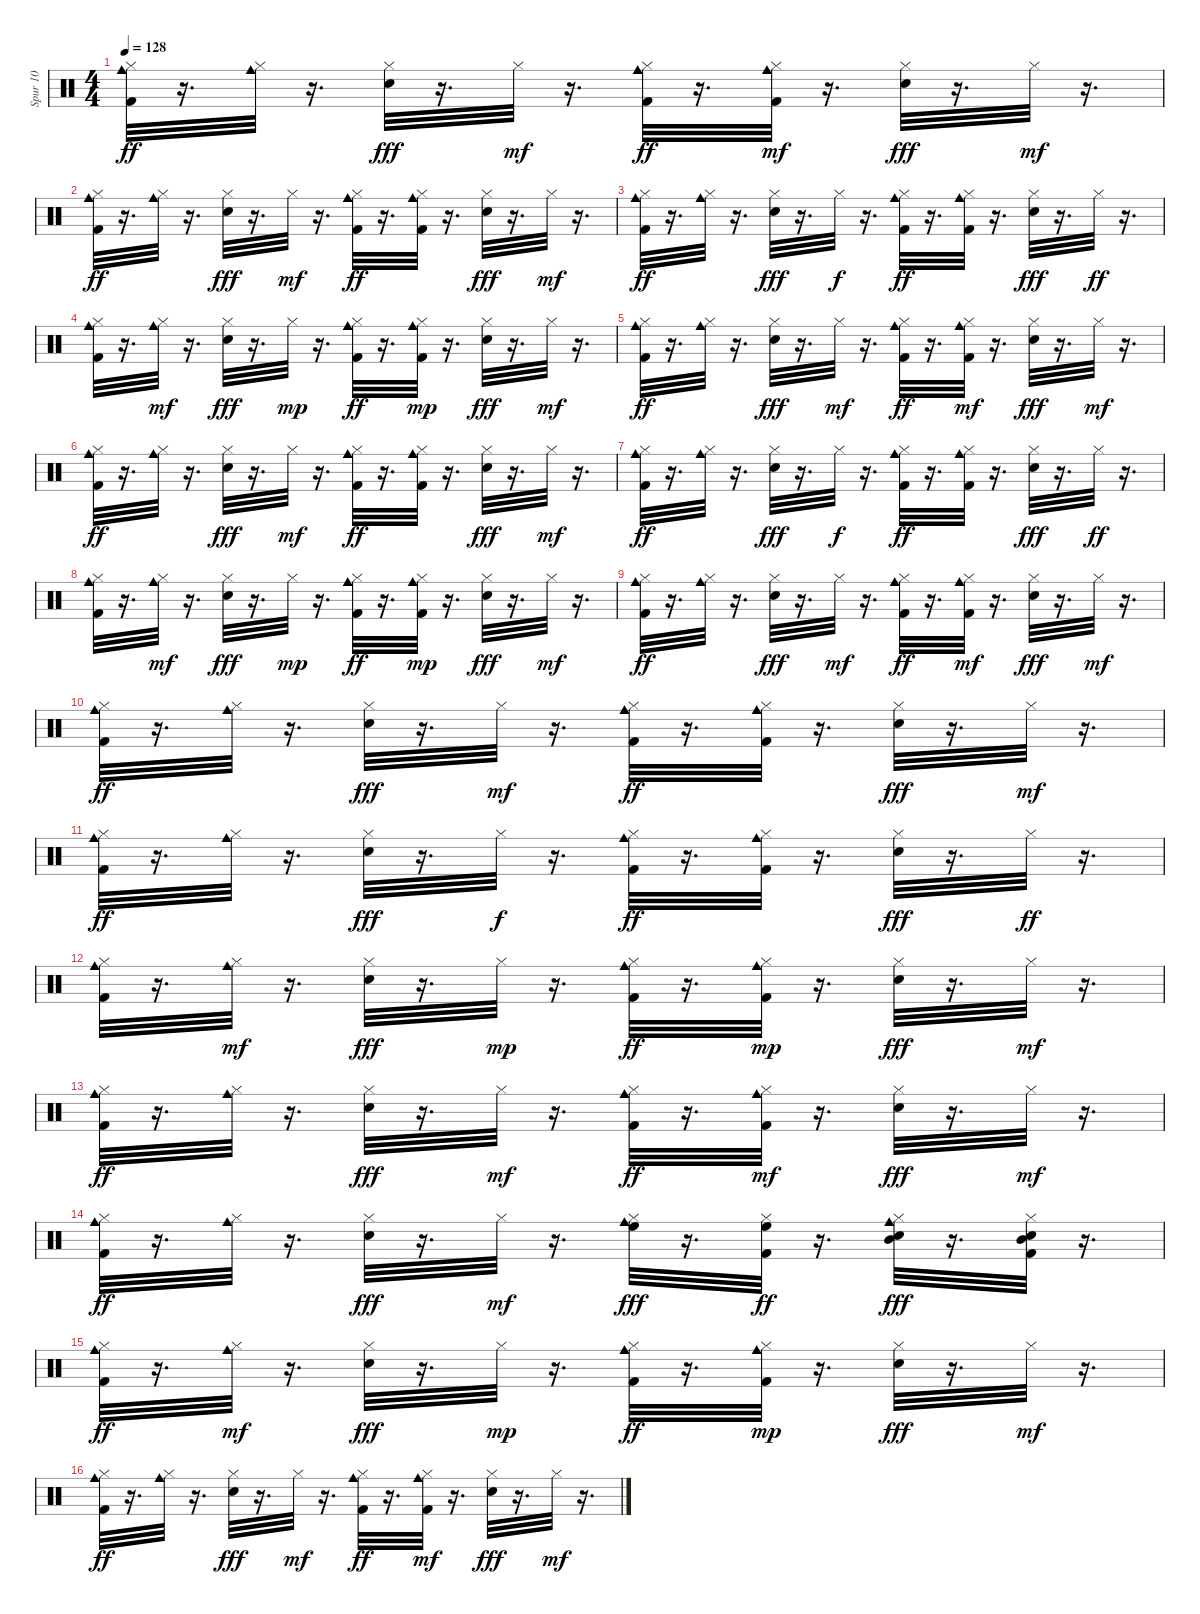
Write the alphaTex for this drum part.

\track ("Spur 10" "Spur 10") {instrument percussion}
\staff {score}
\articulation defaults
\ts (4 4)
\tempo 128
\clef neutral
\ks c
("Kick (hit) 2" "Hi-Hat (closed)" "Cowbell medium (hit)").32{dy ff} r.16{d} ("Hi-Hat (closed)" "Cowbell medium (hit)").32 r.16{d} ("Electric Snare (hit)" "Hi-Hat (closed)").32{dy fff} r.16{d} "Hi-Hat (closed)".32{dy mf} r.16{d} ("Kick (hit) 2" "Hi-Hat (closed)" "Cowbell medium (hit)").32{dy ff} r.16{d} ("Kick (hit) 2" "Hi-Hat (closed)" "Cowbell medium (hit)").32{dy mf} r.16{d} ("Electric Snare (hit)" "Hi-Hat (closed)").32{dy fff} r.16{d} "Hi-Hat (closed)".32{dy mf} r.16{d} |
("Kick (hit) 2" "Hi-Hat (closed)" "Cowbell medium (hit)").32{dy ff} r.16{d} ("Hi-Hat (closed)" "Cowbell medium (hit)").32 r.16{d} ("Electric Snare (hit)" "Hi-Hat (closed)").32{dy fff} r.16{d} "Hi-Hat (closed)".32{dy mf} r.16{d} ("Kick (hit) 2" "Hi-Hat (closed)" "Cowbell medium (hit)").32{dy ff} r.16{d} ("Kick (hit) 2" "Hi-Hat (closed)" "Cowbell medium (hit)").32 r.16{d} ("Electric Snare (hit)" "Hi-Hat (closed)").32{dy fff} r.16{d} "Hi-Hat (closed)".32{dy mf} r.16{d} |
("Kick (hit) 2" "Hi-Hat (closed)" "Cowbell medium (hit)").32{dy ff} r.16{d} ("Hi-Hat (closed)" "Cowbell medium (hit)").32 r.16{d} ("Electric Snare (hit)" "Hi-Hat (closed)").32{dy fff} r.16{d} "Hi-Hat (closed)".32{dy f} r.16{d} ("Kick (hit) 2" "Hi-Hat (closed)" "Cowbell medium (hit)").32{dy ff} r.16{d} ("Kick (hit) 2" "Hi-Hat (closed)" "Cowbell medium (hit)").32 r.16{d} ("Electric Snare (hit)" "Hi-Hat (closed)").32{dy fff} r.16{d} "Hi-Hat (closed)".32{dy ff} r.16{d} |
("Kick (hit) 2" "Hi-Hat (closed)" "Cowbell medium (hit)").32 r.16{d} ("Hi-Hat (closed)" "Cowbell medium (hit)").32{dy mf} r.16{d} ("Electric Snare (hit)" "Hi-Hat (closed)").32{dy fff} r.16{d} "Hi-Hat (closed)".32{dy mp} r.16{d} ("Kick (hit) 2" "Hi-Hat (closed)" "Cowbell medium (hit)").32{dy ff} r.16{d} ("Kick (hit) 2" "Hi-Hat (closed)" "Cowbell medium (hit)").32{dy mp} r.16{d} ("Electric Snare (hit)" "Hi-Hat (closed)").32{dy fff} r.16{d} "Hi-Hat (closed)".32{dy mf} r.16{d} |
("Kick (hit) 2" "Hi-Hat (closed)" "Cowbell medium (hit)").32{dy ff} r.16{d} ("Hi-Hat (closed)" "Cowbell medium (hit)").32 r.16{d} ("Electric Snare (hit)" "Hi-Hat (closed)").32{dy fff} r.16{d} "Hi-Hat (closed)".32{dy mf} r.16{d} ("Kick (hit) 2" "Hi-Hat (closed)" "Cowbell medium (hit)").32{dy ff} r.16{d} ("Kick (hit) 2" "Hi-Hat (closed)" "Cowbell medium (hit)").32{dy mf} r.16{d} ("Electric Snare (hit)" "Hi-Hat (closed)").32{dy fff} r.16{d} "Hi-Hat (closed)".32{dy mf} r.16{d} |
("Kick (hit) 2" "Hi-Hat (closed)" "Cowbell medium (hit)").32{dy ff} r.16{d} ("Hi-Hat (closed)" "Cowbell medium (hit)").32 r.16{d} ("Electric Snare (hit)" "Hi-Hat (closed)").32{dy fff} r.16{d} "Hi-Hat (closed)".32{dy mf} r.16{d} ("Kick (hit) 2" "Hi-Hat (closed)" "Cowbell medium (hit)").32{dy ff} r.16{d} ("Kick (hit) 2" "Hi-Hat (closed)" "Cowbell medium (hit)").32 r.16{d} ("Electric Snare (hit)" "Hi-Hat (closed)").32{dy fff} r.16{d} "Hi-Hat (closed)".32{dy mf} r.16{d} |
("Kick (hit) 2" "Hi-Hat (closed)" "Cowbell medium (hit)").32{dy ff} r.16{d} ("Hi-Hat (closed)" "Cowbell medium (hit)").32 r.16{d} ("Electric Snare (hit)" "Hi-Hat (closed)").32{dy fff} r.16{d} "Hi-Hat (closed)".32{dy f} r.16{d} ("Kick (hit) 2" "Hi-Hat (closed)" "Cowbell medium (hit)").32{dy ff} r.16{d} ("Kick (hit) 2" "Hi-Hat (closed)" "Cowbell medium (hit)").32 r.16{d} ("Electric Snare (hit)" "Hi-Hat (closed)").32{dy fff} r.16{d} "Hi-Hat (closed)".32{dy ff} r.16{d} |
("Kick (hit) 2" "Hi-Hat (closed)" "Cowbell medium (hit)").32 r.16{d} ("Hi-Hat (closed)" "Cowbell medium (hit)").32{dy mf} r.16{d} ("Electric Snare (hit)" "Hi-Hat (closed)").32{dy fff} r.16{d} "Hi-Hat (closed)".32{dy mp} r.16{d} ("Kick (hit) 2" "Hi-Hat (closed)" "Cowbell medium (hit)").32{dy ff} r.16{d} ("Kick (hit) 2" "Hi-Hat (closed)" "Cowbell medium (hit)").32{dy mp} r.16{d} ("Electric Snare (hit)" "Hi-Hat (closed)").32{dy fff} r.16{d} "Hi-Hat (closed)".32{dy mf} r.16{d} |
("Kick (hit) 2" "Hi-Hat (closed)" "Cowbell medium (hit)").32{dy ff} r.16{d} ("Hi-Hat (closed)" "Cowbell medium (hit)").32 r.16{d} ("Electric Snare (hit)" "Hi-Hat (closed)").32{dy fff} r.16{d} "Hi-Hat (closed)".32{dy mf} r.16{d} ("Kick (hit) 2" "Hi-Hat (closed)" "Cowbell medium (hit)").32{dy ff} r.16{d} ("Kick (hit) 2" "Hi-Hat (closed)" "Cowbell medium (hit)").32{dy mf} r.16{d} ("Electric Snare (hit)" "Hi-Hat (closed)").32{dy fff} r.16{d} "Hi-Hat (closed)".32{dy mf} r.16{d} |
("Kick (hit) 2" "Hi-Hat (closed)" "Cowbell medium (hit)").32{dy ff} r.16{d} ("Hi-Hat (closed)" "Cowbell medium (hit)").32 r.16{d} ("Electric Snare (hit)" "Hi-Hat (closed)").32{dy fff} r.16{d} "Hi-Hat (closed)".32{dy mf} r.16{d} ("Kick (hit) 2" "Hi-Hat (closed)" "Cowbell medium (hit)").32{dy ff} r.16{d} ("Kick (hit) 2" "Hi-Hat (closed)" "Cowbell medium (hit)").32 r.16{d} ("Electric Snare (hit)" "Hi-Hat (closed)").32{dy fff} r.16{d} "Hi-Hat (closed)".32{dy mf} r.16{d} |
("Kick (hit) 2" "Hi-Hat (closed)" "Cowbell medium (hit)").32{dy ff} r.16{d} ("Hi-Hat (closed)" "Cowbell medium (hit)").32 r.16{d} ("Electric Snare (hit)" "Hi-Hat (closed)").32{dy fff} r.16{d} "Hi-Hat (closed)".32{dy f} r.16{d} ("Kick (hit) 2" "Hi-Hat (closed)" "Cowbell medium (hit)").32{dy ff} r.16{d} ("Kick (hit) 2" "Hi-Hat (closed)" "Cowbell medium (hit)").32 r.16{d} ("Electric Snare (hit)" "Hi-Hat (closed)").32{dy fff} r.16{d} "Hi-Hat (closed)".32{dy ff} r.16{d} |
("Kick (hit) 2" "Hi-Hat (closed)" "Cowbell medium (hit)").32 r.16{d} ("Hi-Hat (closed)" "Cowbell medium (hit)").32{dy mf} r.16{d} ("Electric Snare (hit)" "Hi-Hat (closed)").32{dy fff} r.16{d} "Hi-Hat (closed)".32{dy mp} r.16{d} ("Kick (hit) 2" "Hi-Hat (closed)" "Cowbell medium (hit)").32{dy ff} r.16{d} ("Kick (hit) 2" "Hi-Hat (closed)" "Cowbell medium (hit)").32{dy mp} r.16{d} ("Electric Snare (hit)" "Hi-Hat (closed)").32{dy fff} r.16{d} "Hi-Hat (closed)".32{dy mf} r.16{d} |
("Kick (hit) 2" "Hi-Hat (closed)" "Cowbell medium (hit)").32{dy ff} r.16{d} ("Hi-Hat (closed)" "Cowbell medium (hit)").32 r.16{d} ("Electric Snare (hit)" "Hi-Hat (closed)").32{dy fff} r.16{d} "Hi-Hat (closed)".32{dy mf} r.16{d} ("Kick (hit) 2" "Hi-Hat (closed)" "Cowbell medium (hit)").32{dy ff} r.16{d} ("Kick (hit) 2" "Hi-Hat (closed)" "Cowbell medium (hit)").32{dy mf} r.16{d} ("Electric Snare (hit)" "Hi-Hat (closed)").32{dy fff} r.16{d} "Hi-Hat (closed)".32{dy mf} r.16{d} |
("Kick (hit) 2" "Hi-Hat (closed)" "Cowbell medium (hit)").32{dy ff} r.16{d} ("Hi-Hat (closed)" "Cowbell medium (hit)").32 r.16{d} ("Electric Snare (hit)" "Hi-Hat (closed)").32{dy fff} r.16{d} "Hi-Hat (closed)".32{dy mf} r.16{d} ("Hi-Hat (closed)" "Cowbell medium (hit)" "High Floor Tom (hit)").32{dy fff} r.16{d} ("Kick (hit) 2" "Hi-Hat (closed)" "High Floor Tom (hit)").32{dy ff} r.16{d} ("Electric Snare (hit)" "Hi-Hat (closed)" "Cowbell medium (hit)" "Mid Tom (hit)").32{dy fff} r.16{d} ("Kick (hit) 2" "Hi-Hat (closed)" "Electric Snare (hit)" "Mid Tom (hit)").32 r.16{d} |
("Kick (hit) 2" "Hi-Hat (closed)" "Cowbell medium (hit)").32{dy ff} r.16{d} ("Hi-Hat (closed)" "Cowbell medium (hit)").32{dy mf} r.16{d} ("Electric Snare (hit)" "Hi-Hat (closed)").32{dy fff} r.16{d} "Hi-Hat (closed)".32{dy mp} r.16{d} ("Kick (hit) 2" "Hi-Hat (closed)" "Cowbell medium (hit)").32{dy ff} r.16{d} ("Kick (hit) 2" "Hi-Hat (closed)" "Cowbell medium (hit)").32{dy mp} r.16{d} ("Electric Snare (hit)" "Hi-Hat (closed)").32{dy fff} r.16{d} "Hi-Hat (closed)".32{dy mf} r.16{d} |
("Kick (hit) 2" "Hi-Hat (closed)" "Cowbell medium (hit)").32{dy ff} r.16{d} ("Hi-Hat (closed)" "Cowbell medium (hit)").32 r.16{d} ("Electric Snare (hit)" "Hi-Hat (closed)").32{dy fff} r.16{d} "Hi-Hat (closed)".32{dy mf} r.16{d} ("Kick (hit) 2" "Hi-Hat (closed)" "Cowbell medium (hit)").32{dy ff} r.16{d} ("Kick (hit) 2" "Hi-Hat (closed)" "Cowbell medium (hit)").32{dy mf} r.16{d} ("Electric Snare (hit)" "Hi-Hat (closed)").32{dy fff} r.16{d} "Hi-Hat (closed)".32{dy mf} r.16{d}
